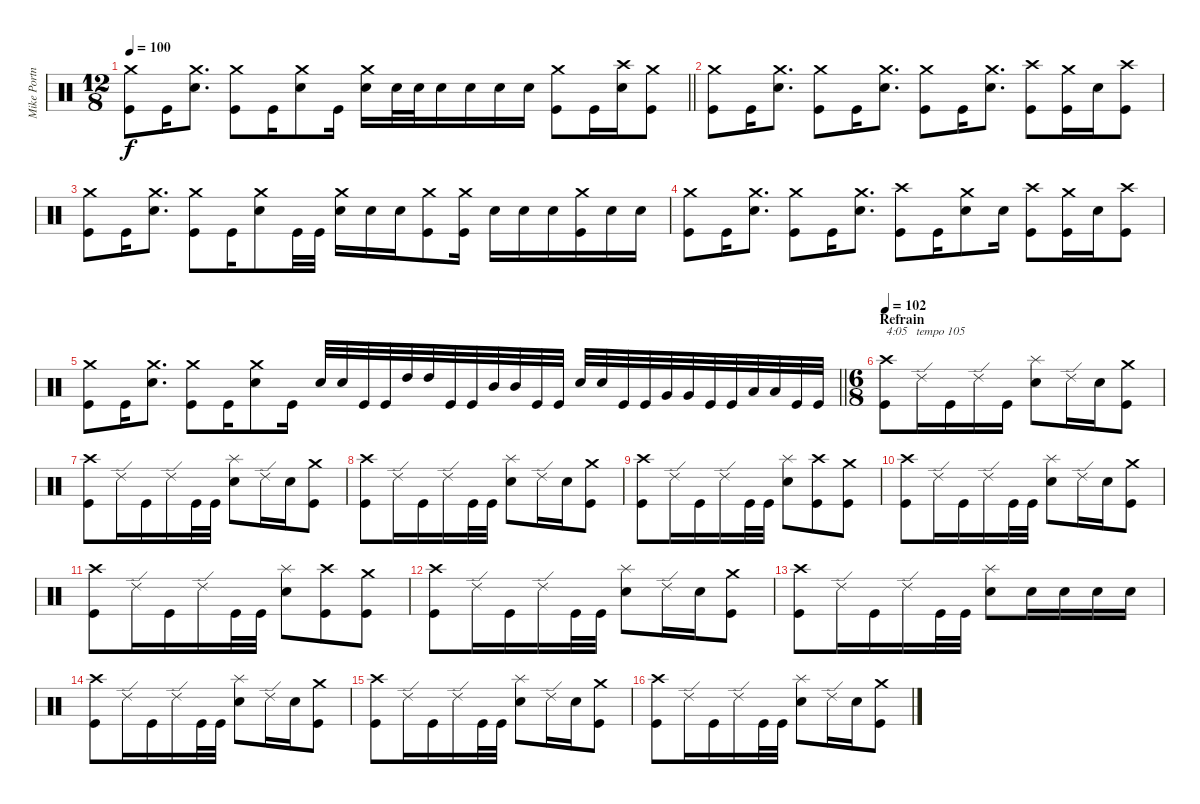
\track ("Mike Portnoy" "Mike Portn") {instrument percussion}
\staff {score}
\articulation defaults
\ts (12 8)
\tempo 100
\clef neutral
\barLineRight lightlight
\ks c
("Crash medium (hit)" "Kick (hit)").8{dy f} "Kick (hit)".16 ("Crash medium (hit)" "Snare (hit) 2").8{d} ("Crash medium (hit)" "Kick (hit)").8 "Kick (hit)".16 ("Crash medium (hit)" "Snare (hit) 2").8 "Kick (hit)".16 ("Crash medium (hit)" "Snare (hit) 2").16 "Snare (hit) 2".32 "Snare (hit) 2".32 "Snare (hit) 2".16 "Snare (hit) 2".16 "Snare (hit) 2".16 "Snare (hit) 2".16 ("Crash medium (hit)" "Kick (hit)").8 "Kick (hit)".16 ("Crash high (hit)" "Snare (hit) 2").16 ("Crash medium (hit)" "Kick (hit)").8 |
\section ("" "")
("Crash medium (hit)" "Kick (hit)").8 "Kick (hit)".16 ("Crash medium (hit)" "Snare (hit) 2").8{d} ("Crash medium (hit)" "Kick (hit)").8 "Kick (hit)".16 ("Crash medium (hit)" "Snare (hit) 2").8{d} ("Crash medium (hit)" "Kick (hit)").8 "Kick (hit)".16 ("Crash medium (hit)" "Snare (hit) 2").8{d} ("Crash high (hit)" "Kick (hit)").8 ("Crash medium (hit)" "Kick (hit)").16 "Snare (hit) 2".16 ("Crash high (hit)" "Kick (hit)").8 |
("Crash medium (hit)" "Kick (hit)").8 "Kick (hit)".16 ("Crash medium (hit)" "Snare (hit) 2").8{d} ("Crash medium (hit)" "Kick (hit)").8 "Kick (hit)".16 ("Crash medium (hit)" "Snare (hit) 2").8 "Kick (hit)".32 "Kick (hit)".32 ("Crash medium (hit)" "Snare (hit) 2").16 "Snare (hit) 2".16 "Snare (hit) 2".16 ("Crash medium (hit)" "Kick (hit)").8 ("Crash medium (hit)" "Kick (hit)").16 "Snare (hit) 2".16 "Snare (hit) 2".16 "Snare (hit) 2".16 ("Crash medium (hit)" "Kick (hit)").16 "Snare (hit) 2".16 "Snare (hit) 2".16 |
("Crash medium (hit)" "Kick (hit)").8 "Kick (hit)".16 ("Crash medium (hit)" "Snare (hit) 2").8{d} ("Crash medium (hit)" "Kick (hit)").8 "Kick (hit)".16 ("Crash medium (hit)" "Snare (hit) 2").8{d} ("Crash high (hit)" "Kick (hit)").8 "Kick (hit)".16 ("Crash medium (hit)" "Snare (hit) 2").8 "Snare (hit) 2".16 ("Crash high (hit)" "Kick (hit)").8 ("Crash medium (hit)" "Kick (hit)").16 "Snare (hit) 2".16 ("Crash high (hit)" "Kick (hit)").8 |
\barLineRight lightlight
("Crash medium (hit)" "Kick (hit)").8 "Kick (hit)".16 ("Crash medium (hit)" "Snare (hit) 2").8{d} ("Crash medium (hit)" "Kick (hit)").8 "Kick (hit)".16 ("Crash medium (hit)" "Snare (hit) 2").8 "Kick (hit)".16 "Snare (hit) 2".32 "Snare (hit) 2".32 "Kick (hit)".32 "Kick (hit)".32 "High Tom (hit)".32 "High Tom (hit)".32 "Kick (hit)".32 "Kick (hit)".32 "Mid Tom (hit)".32 "Mid Tom (hit)".32 "Kick (hit)".32 "Kick (hit)".32 "Snare (hit) 2".32 "Snare (hit) 2".32 "Kick (hit)".32 "Kick (hit)".32 "Very Low Tom (hit)".32 "Very Low Tom (hit)".32 "Kick (hit)".32 "Kick (hit)".32 "Low Tom (hit)".32 "Low Tom (hit)".32 "Kick (hit)".32 "Kick (hit)".32 |
\ts (6 8)
\section ("" "Refrain")
\tempo 102
("Crash high (hit)" "Kick (hit)").8{txt "4:05   tempo 105"} "Ride (edge) 2".16 "Kick (hit)".16 "Ride (edge) 2".16 "Kick (hit)".16 ("Splash (hit)" "Snare (hit) 2").8 "Ride (edge) 2".16 "Snare (hit) 2".16 ("Crash medium (hit)" "Kick (hit)").8 |
("Crash high (hit)" "Kick (hit)").8 "Ride (edge) 2".16 "Kick (hit)".16 "Ride (edge) 2".16 "Kick (hit)".32 "Kick (hit)".32 ("Splash (hit)" "Snare (hit) 2").8 "Ride (edge) 2".16 "Snare (hit) 2".16 ("Crash medium (hit)" "Kick (hit)").8 |
("Crash high (hit)" "Kick (hit)").8 "Ride (edge) 2".16 "Kick (hit)".16 "Ride (edge) 2".16 "Kick (hit)".32 "Kick (hit)".32 ("Splash (hit)" "Snare (hit) 2").8 "Ride (edge) 2".16 "Snare (hit) 2".16 ("Crash medium (hit)" "Kick (hit)").8 |
("Crash high (hit)" "Kick (hit)").8 "Ride (edge) 2".16 "Kick (hit)".16 "Ride (edge) 2".16 "Kick (hit)".32 "Kick (hit)".32 ("Splash (hit)" "Snare (hit) 2").8 ("Crash high (hit)" "Kick (hit)").8 ("Crash medium (hit)" "Kick (hit)").8 |
("Crash high (hit)" "Kick (hit)").8 "Ride (edge) 2".16 "Kick (hit)".16 "Ride (edge) 2".16 "Kick (hit)".32 "Kick (hit)".32 ("Splash (hit)" "Snare (hit) 2").8 "Ride (edge) 2".16 "Snare (hit) 2".16 ("Crash medium (hit)" "Kick (hit)").8 |
("Crash high (hit)" "Kick (hit)").8 "Ride (edge) 2".16 "Kick (hit)".16 "Ride (edge) 2".16 "Kick (hit)".32 "Kick (hit)".32 ("Splash (hit)" "Snare (hit) 2").8 ("Crash high (hit)" "Kick (hit)").8 ("Crash medium (hit)" "Kick (hit)").8 |
("Crash high (hit)" "Kick (hit)").8 "Ride (edge) 2".16 "Kick (hit)".16 "Ride (edge) 2".16 "Kick (hit)".32 "Kick (hit)".32 ("Splash (hit)" "Snare (hit) 2").8 "Ride (edge) 2".16 "Snare (hit) 2".16 ("Crash medium (hit)" "Kick (hit)").8 |
("Crash high (hit)" "Kick (hit)").8 "Ride (edge) 2".16 "Kick (hit)".16 "Ride (edge) 2".16 "Kick (hit)".32 "Kick (hit)".32 ("Splash (hit)" "Snare (hit) 2").8 "Snare (hit) 2".16 "Snare (hit) 2".16 "Snare (hit) 2".16 "Snare (hit) 2".16 |
("Crash high (hit)" "Kick (hit)").8 "Ride (edge) 2".16 "Kick (hit)".16 "Ride (edge) 2".16 "Kick (hit)".32 "Kick (hit)".32 ("Splash (hit)" "Snare (hit) 2").8 "Ride (edge) 2".16 "Snare (hit) 2".16 ("Crash medium (hit)" "Kick (hit)").8 |
("Crash high (hit)" "Kick (hit)").8 "Ride (edge) 2".16 "Kick (hit)".16 "Ride (edge) 2".16 "Kick (hit)".32 "Kick (hit)".32 ("Splash (hit)" "Snare (hit) 2").8 "Ride (edge) 2".16 "Snare (hit) 2".16 ("Crash medium (hit)" "Kick (hit)").8 |
("Crash high (hit)" "Kick (hit)").8 "Ride (edge) 2".16 "Kick (hit)".16 "Ride (edge) 2".16 "Kick (hit)".32 "Kick (hit)".32 ("Splash (hit)" "Snare (hit) 2").8 "Ride (edge) 2".16 "Snare (hit) 2".16 ("Crash medium (hit)" "Kick (hit)").8
